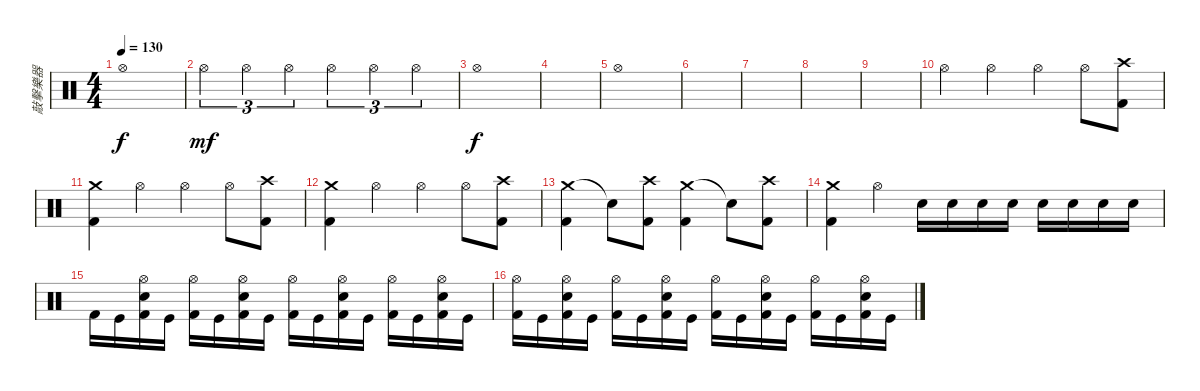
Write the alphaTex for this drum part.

\track ("敲擊樂器" "敲擊樂器") {instrument percussion}
\staff {score}
\articulation defaults
\ts (4 4)
\tempo 130
\clef neutral
\ks c "Hi-Hat (open)".1{dy f}
|
"Hi-Hat (open)".4{tu (3 2) dy mf} "Hi-Hat (open)".4{tu (3 2)} "Hi-Hat (open)".4{tu (3 2)} "Hi-Hat (open)".4{tu (3 2)} "Hi-Hat (open)".4{tu (3 2)} "Hi-Hat (open)".4{tu (3 2)} |
"Hi-Hat (open)".1{dy f} |
|
"Hi-Hat (open)".1 |
|
|
|
|
"Hi-Hat (open)".4 "Hi-Hat (open)".4 "Hi-Hat (open)".4 "Hi-Hat (open)".8 ("Crash high (hit)" "Kick (hit) 2").8 |
("Crash medium (hit)" "Kick (hit) 2").4 "Hi-Hat (open)".4 "Hi-Hat (open)".4 "Hi-Hat (open)".8 ("Crash high (hit)" "Kick (hit) 2").8 |
("Crash medium (hit)" "Kick (hit) 2").4 "Hi-Hat (open)".4 "Hi-Hat (open)".4 "Hi-Hat (open)".8 ("Crash high (hit)" "Kick (hit) 2").8 |
("Crash medium (hit)" "Kick (hit) 2").4 "Snare (hit)"{t}.8 ("Crash high (hit)" "Kick (hit) 2").8 ("Crash medium (hit)" "Kick (hit) 2").4 "Snare (hit)"{t}.8 ("Crash high (hit)" "Kick (hit) 2").8 |
("Crash medium (hit)" "Kick (hit) 2").4 "Hi-Hat (open)".4 "Snare (hit) 2".16 "Snare (hit) 2".16 "Snare (hit) 2".16 "Snare (hit) 2".16 "Snare (hit) 2".16 "Snare (hit) 2".16 "Snare (hit) 2".16 "Snare (hit) 2".16 |
"Kick (hit) 2".16 "Kick (hit)".16 ("Hi-Hat (open)" "Snare (hit) 2" "Kick (hit) 2").16 "Kick (hit)".16 ("Hi-Hat (open)" "Kick (hit) 2").16 "Kick (hit)".16 ("Hi-Hat (open)" "Snare (hit) 2" "Kick (hit) 2").16 "Kick (hit)".16 ("Hi-Hat (open)" "Kick (hit) 2").16 "Kick (hit)".16 ("Hi-Hat (open)" "Snare (hit) 2" "Kick (hit) 2").16 "Kick (hit)".16 ("Hi-Hat (open)" "Kick (hit) 2").16 "Kick (hit)".16 ("Hi-Hat (open)" "Snare (hit) 2" "Kick (hit) 2").16 "Kick (hit)".16 |
("Hi-Hat (open)" "Kick (hit) 2").16 "Kick (hit)".16 ("Hi-Hat (open)" "Snare (hit) 2" "Kick (hit) 2").16 "Kick (hit)".16 ("Hi-Hat (open)" "Kick (hit) 2").16 "Kick (hit)".16 ("Hi-Hat (open)" "Snare (hit) 2" "Kick (hit) 2").16 "Kick (hit)".16 ("Hi-Hat (open)" "Kick (hit) 2").16 "Kick (hit)".16 ("Hi-Hat (open)" "Snare (hit) 2" "Kick (hit) 2").16 "Kick (hit)".16 ("Hi-Hat (open)" "Kick (hit) 2").16 "Kick (hit)".16 ("Hi-Hat (open)" "Snare (hit) 2" "Kick (hit) 2").16 "Kick (hit)".16
